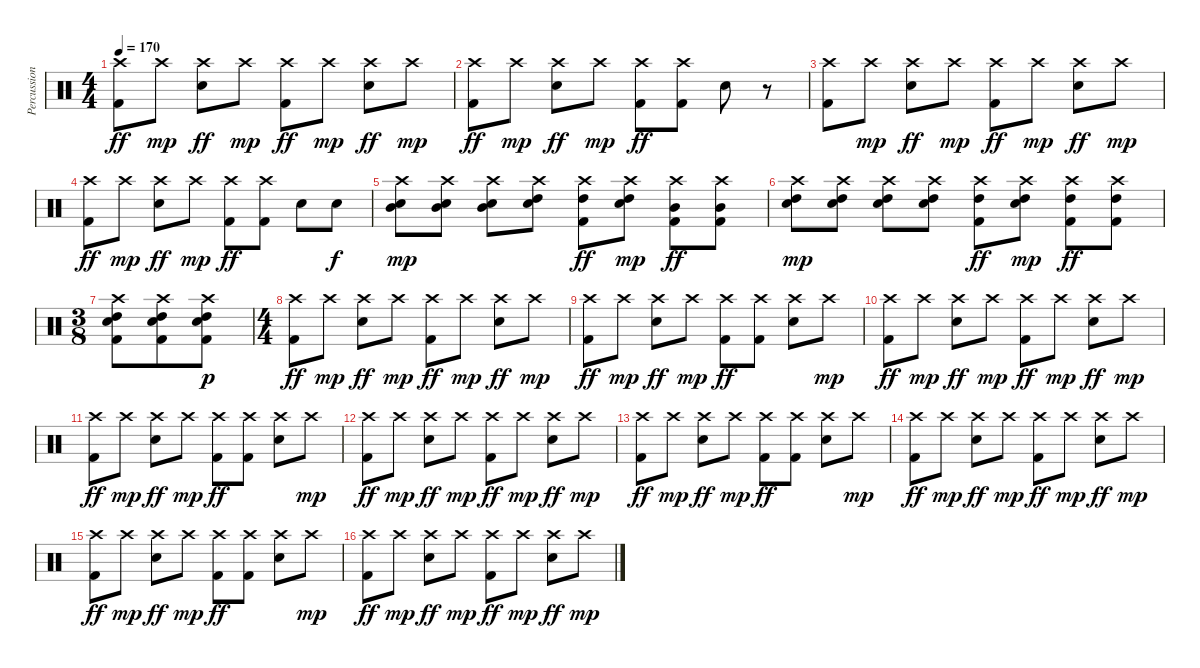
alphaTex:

\track ("Percussion" "Percussion") {instrument percussion}
\staff {score}
\articulation defaults
\ts (4 4)
\tempo 170
\clef neutral
\ks c
("Crash high (hit)" "Kick (hit) 2").8{dy ff} "Crash high (hit)".8{dy mp} ("Crash high (hit)" "Electric Snare (hit)").8{dy ff} "Crash high (hit)".8{dy mp} ("Crash high (hit)" "Kick (hit) 2").8{dy ff} "Crash high (hit)".8{dy mp} ("Crash high (hit)" "Electric Snare (hit)").8{dy ff} "Crash high (hit)".8{dy mp} |
("Crash high (hit)" "Kick (hit) 2").8{dy ff} "Crash high (hit)".8{dy mp} ("Crash high (hit)" "Electric Snare (hit)").8{dy ff} "Crash high (hit)".8{dy mp} ("Crash high (hit)" "Kick (hit) 2").8{dy ff} ("Crash high (hit)" "Kick (hit) 2").8 "Electric Snare (hit)".8 r.8 |
("Crash high (hit)" "Kick (hit) 2").8 "Crash high (hit)".8{dy mp} ("Crash high (hit)" "Electric Snare (hit)").8{dy ff} "Crash high (hit)".8{dy mp} ("Crash high (hit)" "Kick (hit) 2").8{dy ff} "Crash high (hit)".8{dy mp} ("Crash high (hit)" "Electric Snare (hit)").8{dy ff} "Crash high (hit)".8{dy mp} |
("Crash high (hit)" "Kick (hit) 2").8{dy ff} "Crash high (hit)".8{dy mp} ("Crash high (hit)" "Electric Snare (hit)").8{dy ff} "Crash high (hit)".8{dy mp} ("Crash high (hit)" "Kick (hit) 2").8{dy ff} ("Crash high (hit)" "Kick (hit) 2").8 "Electric Snare (hit)".8 "Electric Snare (hit)".8{dy f} |
("Crash high (hit)" "Mid Tom (hit)" "Electric Snare (hit)").8{dy mp} ("Crash high (hit)" "Mid Tom (hit)" "Electric Snare (hit)").8 ("Crash high (hit)" "Mid Tom (hit)" "Electric Snare (hit)").8 ("Crash high (hit)" "High Tom (hit)" "Electric Snare (hit)").8 ("Crash high (hit)" "High Tom (hit)" "Kick (hit) 2").8{dy ff} ("Crash high (hit)" "High Tom (hit)" "Electric Snare (hit)").8{dy mp} ("Crash high (hit)" "Mid Tom (hit)" "Kick (hit) 2").8{dy ff} ("Crash high (hit)" "Mid Tom (hit)" "Kick (hit) 2").8 |
("Crash high (hit)" "High Tom (hit)" "Electric Snare (hit)").8{dy mp} ("Crash high (hit)" "High Tom (hit)" "Electric Snare (hit)").8 ("Crash high (hit)" "High Tom (hit)" "Electric Snare (hit)").8 ("Crash high (hit)" "High Tom (hit)" "Electric Snare (hit)").8 ("Crash high (hit)" "High Tom (hit)" "Kick (hit) 2").8{dy ff} ("Crash high (hit)" "High Tom (hit)" "Electric Snare (hit)").8{dy mp} ("Crash high (hit)" "High Tom (hit)" "Kick (hit) 2").8{dy ff} ("Crash high (hit)" "High Tom (hit)" "Kick (hit) 2").8 |
\ts (3 8)
("High Tom (hit)" "Crash high (hit)" "Electric Snare (hit)" "Kick (hit) 2").8 ("High Tom (hit)" "Crash high (hit)" "Electric Snare (hit)" "Kick (hit) 2").8 ("High Tom (hit)" "Crash high (hit)" "Electric Snare (hit)" "Kick (hit) 2").8{dy p} |
\ts (4 4)
("Crash high (hit)" "Kick (hit) 2").8{dy ff} "Crash high (hit)".8{dy mp} ("Crash high (hit)" "Electric Snare (hit)").8{dy ff} "Crash high (hit)".8{dy mp} ("Crash high (hit)" "Kick (hit) 2").8{dy ff} "Crash high (hit)".8{dy mp} ("Crash high (hit)" "Electric Snare (hit)").8{dy ff} "Crash high (hit)".8{dy mp} |
("Crash high (hit)" "Kick (hit) 2").8{dy ff} "Crash high (hit)".8{dy mp} ("Crash high (hit)" "Electric Snare (hit)").8{dy ff} "Crash high (hit)".8{dy mp} ("Crash high (hit)" "Kick (hit) 2").8{dy ff} ("Crash high (hit)" "Kick (hit) 2").8 ("Crash high (hit)" "Electric Snare (hit)").8 "Crash high (hit)".8{dy mp} |
("Crash high (hit)" "Kick (hit) 2").8{dy ff} "Crash high (hit)".8{dy mp} ("Crash high (hit)" "Electric Snare (hit)").8{dy ff} "Crash high (hit)".8{dy mp} ("Crash high (hit)" "Kick (hit) 2").8{dy ff} "Crash high (hit)".8{dy mp} ("Crash high (hit)" "Electric Snare (hit)").8{dy ff} "Crash high (hit)".8{dy mp} |
("Crash high (hit)" "Kick (hit) 2").8{dy ff} "Crash high (hit)".8{dy mp} ("Crash high (hit)" "Electric Snare (hit)").8{dy ff} "Crash high (hit)".8{dy mp} ("Crash high (hit)" "Kick (hit) 2").8{dy ff} ("Crash high (hit)" "Kick (hit) 2").8 ("Crash high (hit)" "Electric Snare (hit)").8 "Crash high (hit)".8{dy mp} |
("Crash high (hit)" "Kick (hit) 2").8{dy ff} "Crash high (hit)".8{dy mp} ("Crash high (hit)" "Electric Snare (hit)").8{dy ff} "Crash high (hit)".8{dy mp} ("Crash high (hit)" "Kick (hit) 2").8{dy ff} "Crash high (hit)".8{dy mp} ("Crash high (hit)" "Electric Snare (hit)").8{dy ff} "Crash high (hit)".8{dy mp} |
("Crash high (hit)" "Kick (hit) 2").8{dy ff} "Crash high (hit)".8{dy mp} ("Crash high (hit)" "Electric Snare (hit)").8{dy ff} "Crash high (hit)".8{dy mp} ("Crash high (hit)" "Kick (hit) 2").8{dy ff} ("Crash high (hit)" "Kick (hit) 2").8 ("Crash high (hit)" "Electric Snare (hit)").8 "Crash high (hit)".8{dy mp} |
("Crash high (hit)" "Kick (hit) 2").8{dy ff} "Crash high (hit)".8{dy mp} ("Crash high (hit)" "Electric Snare (hit)").8{dy ff} "Crash high (hit)".8{dy mp} ("Crash high (hit)" "Kick (hit) 2").8{dy ff} "Crash high (hit)".8{dy mp} ("Crash high (hit)" "Electric Snare (hit)").8{dy ff} "Crash high (hit)".8{dy mp} |
("Crash high (hit)" "Kick (hit) 2").8{dy ff} "Crash high (hit)".8{dy mp} ("Crash high (hit)" "Electric Snare (hit)").8{dy ff} "Crash high (hit)".8{dy mp} ("Crash high (hit)" "Kick (hit) 2").8{dy ff} ("Crash high (hit)" "Kick (hit) 2").8 ("Crash high (hit)" "Electric Snare (hit)").8 "Crash high (hit)".8{dy mp} |
("Crash high (hit)" "Kick (hit) 2").8{dy ff} "Crash high (hit)".8{dy mp} ("Crash high (hit)" "Electric Snare (hit)").8{dy ff} "Crash high (hit)".8{dy mp} ("Crash high (hit)" "Kick (hit) 2").8{dy ff} "Crash high (hit)".8{dy mp} ("Crash high (hit)" "Electric Snare (hit)").8{dy ff} "Crash high (hit)".8{dy mp}
